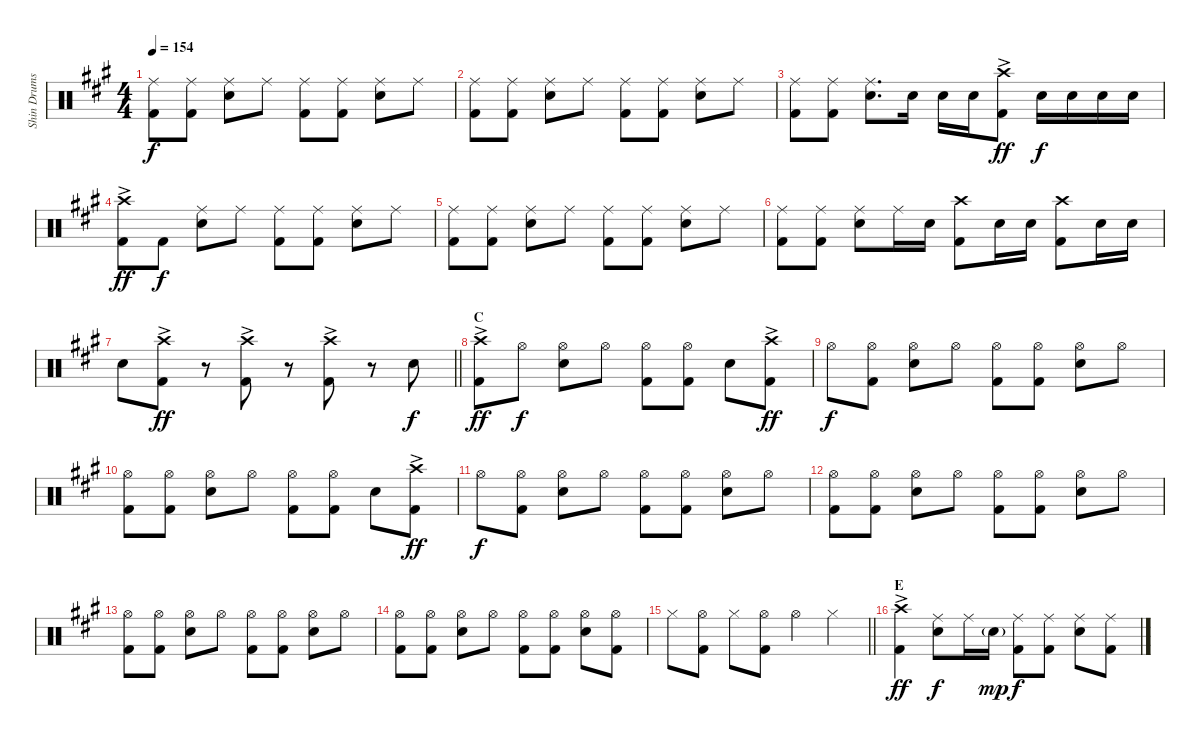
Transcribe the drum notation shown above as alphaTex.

\track ("Shin Drums" "Shin Drums") {instrument percussion}
\staff {score}
\articulation defaults
\ts (4 4)
\tempo 154
\clef neutral
\ks a
("Ride (middle)" "Kick (hit) 2").8{dy f} ("Ride (middle)" "Kick (hit) 2").8 ("Ride (middle)" "Snare (hit) 2").8 "Ride (middle)".8 ("Ride (middle)" "Kick (hit) 2").8 ("Ride (middle)" "Kick (hit) 2").8 ("Ride (middle)" "Snare (hit) 2").8 "Ride (middle)".8 |
("Ride (middle)" "Kick (hit) 2").8 ("Ride (middle)" "Kick (hit) 2").8 ("Ride (middle)" "Snare (hit) 2").8 "Ride (middle)".8 ("Ride (middle)" "Kick (hit) 2").8 ("Ride (middle)" "Kick (hit) 2").8 ("Ride (middle)" "Snare (hit) 2").8 "Ride (middle)".8 |
("Ride (middle)" "Kick (hit) 2").8 ("Ride (middle)" "Kick (hit) 2").8 ("Ride (middle)" "Snare (hit) 2").8{d} "Snare (hit) 2".16 "Snare (hit) 2".16 "Snare (hit) 2".16 ("Crash high (hit)"{ac} "Kick (hit) 2").8{dy ff} "Snare (hit) 2".16{dy f} "Snare (hit) 2".16 "Snare (hit) 2".16 "Snare (hit) 2".16 |
("Crash high (hit)"{ac} "Kick (hit) 2").8{dy ff} "Kick (hit) 2".8{dy f} ("Ride (middle)" "Snare (hit) 2").8 "Ride (middle)".8 ("Ride (middle)" "Kick (hit) 2").8 ("Ride (middle)" "Kick (hit) 2").8 ("Ride (middle)" "Snare (hit) 2").8 "Ride (middle)".8 |
("Ride (middle)" "Kick (hit) 2").8 ("Ride (middle)" "Kick (hit) 2").8 ("Ride (middle)" "Snare (hit) 2").8 "Ride (middle)".8 ("Ride (middle)" "Kick (hit) 2").8 ("Ride (middle)" "Kick (hit) 2").8 ("Ride (middle)" "Snare (hit) 2").8 "Ride (middle)".8 |
("Ride (middle)" "Kick (hit) 2").8 ("Ride (middle)" "Kick (hit) 2").8 ("Ride (middle)" "Snare (hit) 2").8 "Ride (middle)".16 "Snare (hit) 2".16 ("Crash high (hit)" "Kick (hit) 2").8 "Snare (hit) 2".16 "Snare (hit) 2".16 ("Crash high (hit)" "Kick (hit) 2").8 "Snare (hit) 2".16 "Snare (hit) 2".16 |
\barLineRight lightlight "Snare (hit) 2".8
("Crash high (hit)"{ac} "Kick (hit) 2").8{dy ff} r.8 ("Crash high (hit)"{ac} "Kick (hit) 2").8 r.8 ("Crash high (hit)"{ac} "Kick (hit) 2").8 r.8 "Snare (hit) 2".8{dy f} |
\section ("" "C")
("Crash high (hit)"{ac} "Kick (hit) 2").8{dy ff} "Hi-Hat (open)".8{dy f} ("Hi-Hat (open)" "Snare (hit) 2").8 "Hi-Hat (open)".8 ("Hi-Hat (open)" "Kick (hit) 2").8 ("Hi-Hat (open)" "Kick (hit) 2").8 "Snare (hit) 2".8 ("Crash high (hit)"{ac} "Kick (hit) 2").8{dy ff} |
"Hi-Hat (open)".8{dy f} ("Hi-Hat (open)" "Kick (hit) 2").8 ("Hi-Hat (open)" "Snare (hit) 2").8 "Hi-Hat (open)".8 ("Hi-Hat (open)" "Kick (hit) 2").8 ("Hi-Hat (open)" "Kick (hit) 2").8 ("Hi-Hat (open)" "Snare (hit) 2").8 "Hi-Hat (open)".8 |
("Hi-Hat (open)" "Kick (hit) 2").8 ("Hi-Hat (open)" "Kick (hit) 2").8 ("Hi-Hat (open)" "Snare (hit) 2").8 "Hi-Hat (open)".8 ("Hi-Hat (open)" "Kick (hit) 2").8 ("Hi-Hat (open)" "Kick (hit) 2").8 "Snare (hit) 2".8 ("Crash high (hit)"{ac} "Kick (hit) 2").8{dy ff} |
"Hi-Hat (open)".8{dy f} ("Hi-Hat (open)" "Kick (hit) 2").8 ("Hi-Hat (open)" "Snare (hit) 2").8 "Hi-Hat (open)".8 ("Hi-Hat (open)" "Kick (hit) 2").8 ("Hi-Hat (open)" "Kick (hit) 2").8 ("Hi-Hat (open)" "Snare (hit) 2").8 "Hi-Hat (open)".8 |
("Hi-Hat (open)" "Kick (hit) 2").8 ("Hi-Hat (open)" "Kick (hit) 2").8 ("Hi-Hat (open)" "Snare (hit) 2").8 "Hi-Hat (open)".8 ("Hi-Hat (open)" "Kick (hit) 2").8 ("Hi-Hat (open)" "Kick (hit) 2").8 ("Hi-Hat (open)" "Snare (hit) 2").8 "Hi-Hat (open)".8 |
("Hi-Hat (open)" "Kick (hit) 2").8 ("Hi-Hat (open)" "Kick (hit) 2").8 ("Hi-Hat (open)" "Snare (hit) 2").8 "Hi-Hat (open)".8 ("Hi-Hat (open)" "Kick (hit) 2").8 ("Hi-Hat (open)" "Kick (hit) 2").8 ("Hi-Hat (open)" "Snare (hit) 2").8 "Hi-Hat (open)".8 |
("Hi-Hat (open)" "Kick (hit) 2").8 ("Hi-Hat (open)" "Kick (hit) 2").8 ("Hi-Hat (open)" "Snare (hit) 2").8 "Hi-Hat (open)".8 ("Hi-Hat (open)" "Kick (hit) 2").8 ("Hi-Hat (open)" "Kick (hit) 2").8 ("Hi-Hat (open)" "Snare (hit) 2").8 ("Hi-Hat (open)" "Kick (hit) 2").8 |
\barLineRight lightlight "Hi-Hat (closed)".8
("Hi-Hat (open)" "Kick (hit) 2").8 "Hi-Hat (closed)".8 ("Hi-Hat (open)" "Kick (hit) 2").8 "Hi-Hat (open)".4 "Hi-Hat (closed)".4 |
\section ("" "E")
("Crash high (hit)"{ac} "Kick (hit) 2").4{dy ff} ("Ride (middle)" "Snare (hit) 2").8{dy f} "Ride (middle)".16 "Snare (hit) 2"{g}.16{dy mp} ("Ride (middle)" "Kick (hit) 2").8{dy f} ("Ride (middle)" "Kick (hit) 2").8 ("Ride (middle)" "Snare (hit) 2").8 ("Ride (middle)" "Kick (hit) 2").8
